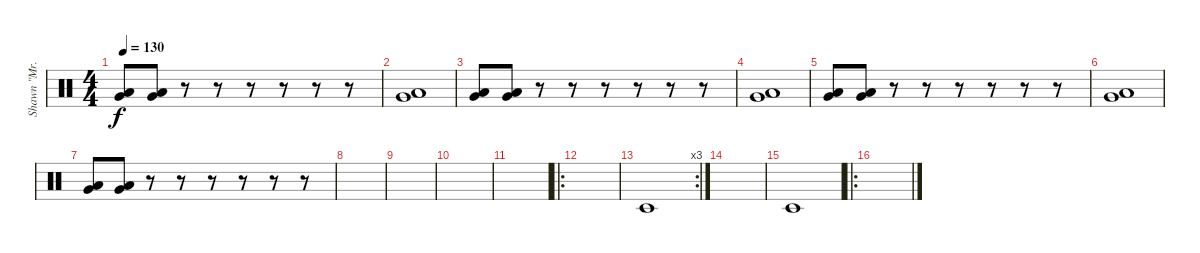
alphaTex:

\track ("Shawn \"Mr.Clown\" Crahan" "Shawn \"Mr.") {instrument percussion}
\staff {score}
\articulation defaults
\ts (4 4)
\tempo 130
\clef neutral
\ks c
("Very Low Tom (hit)" "Low Floor Tom (hit)").8{dy f} ("Very Low Tom (hit)" "Low Floor Tom (hit)").8 r.8 r.8 r.8 r.8 r.8 r.8 |
("Very Low Tom (hit)" "Low Floor Tom (hit)").1 |
("Very Low Tom (hit)" "Low Floor Tom (hit)").8 ("Very Low Tom (hit)" "Low Floor Tom (hit)").8 r.8 r.8 r.8 r.8 r.8 r.8 |
("Very Low Tom (hit)" "Low Floor Tom (hit)").1 |
("Very Low Tom (hit)" "Low Floor Tom (hit)").8 ("Very Low Tom (hit)" "Low Floor Tom (hit)").8 r.8 r.8 r.8 r.8 r.8 r.8 |
("Very Low Tom (hit)" "Low Floor Tom (hit)").1 |
("Very Low Tom (hit)" "Low Floor Tom (hit)").8 ("Very Low Tom (hit)" "Low Floor Tom (hit)").8 r.8 r.8 r.8 r.8 r.8 r.8 |
|
|
|
|
\ro
|
\rc 3 "Timbale low (hit)".1
|
|
"Timbale low (hit)".1 |
\ro
